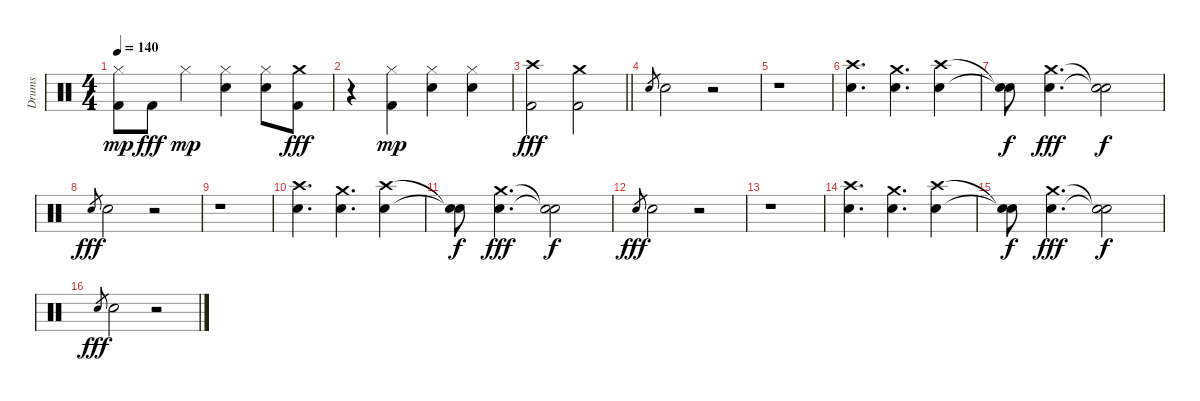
\track ("Drums" "Drums") {instrument percussion}
\staff {score}
\articulation defaults
\ts (4 4)
\tempo 140
\clef neutral
\ks c
("Kick (hit) 2" "Hi-Hat (closed)").8{dy mp} "Kick (hit) 2".8{dy fff} "Hi-Hat (closed)".4{dy mp} ("Electric Snare (hit)" "Hi-Hat (closed)").4 ("Electric Snare (hit)" "Hi-Hat (closed)").8 ("Kick (hit) 2" "Crash medium (hit)").8{dy fff} |
r.4 ("Kick (hit) 2" "Hi-Hat (closed)").4{dy mp} ("Electric Snare (hit)" "Hi-Hat (closed)").4 ("Electric Snare (hit)" "Hi-Hat (closed)").4 |
\barLineRight lightlight
("Kick (hit) 2" "Crash high (hit)").2{dy fff} ("Kick (hit) 2" "Crash medium (hit)").2 |
"Electric Snare (hit)".8{gr} "Electric Snare (hit)".2 r.2 |
r.1 |
("Electric Snare (hit)" "Crash high (hit)").4{d} ("Electric Snare (hit)" "Crash medium (hit)").4{d} ("Electric Snare (hit)" "Crash high (hit)").4 |
("Snare (hit)"{t} "Snare (hit)"{t}).8{dy f} ("Electric Snare (hit)" "Crash medium (hit)").4{d dy fff} ("Snare (hit)"{t} "Snare (hit)"{t}).2{dy f} |
"Electric Snare (hit)".8{gr dy fff} "Electric Snare (hit)".2 r.2 |
r.1 |
("Electric Snare (hit)" "Crash high (hit)").4{d} ("Electric Snare (hit)" "Crash medium (hit)").4{d} ("Electric Snare (hit)" "Crash high (hit)").4 |
("Snare (hit)"{t} "Snare (hit)"{t}).8{dy f} ("Electric Snare (hit)" "Crash medium (hit)").4{d dy fff} ("Snare (hit)"{t} "Snare (hit)"{t}).2{dy f} |
"Electric Snare (hit)".8{gr dy fff} "Electric Snare (hit)".2 r.2 |
r.1 |
("Electric Snare (hit)" "Crash high (hit)").4{d} ("Electric Snare (hit)" "Crash medium (hit)").4{d} ("Electric Snare (hit)" "Crash high (hit)").4 |
("Snare (hit)"{t} "Snare (hit)"{t}).8{dy f} ("Electric Snare (hit)" "Crash medium (hit)").4{d dy fff} ("Snare (hit)"{t} "Snare (hit)"{t}).2{dy f} |
"Electric Snare (hit)".8{gr dy fff} "Electric Snare (hit)".2 r.2
